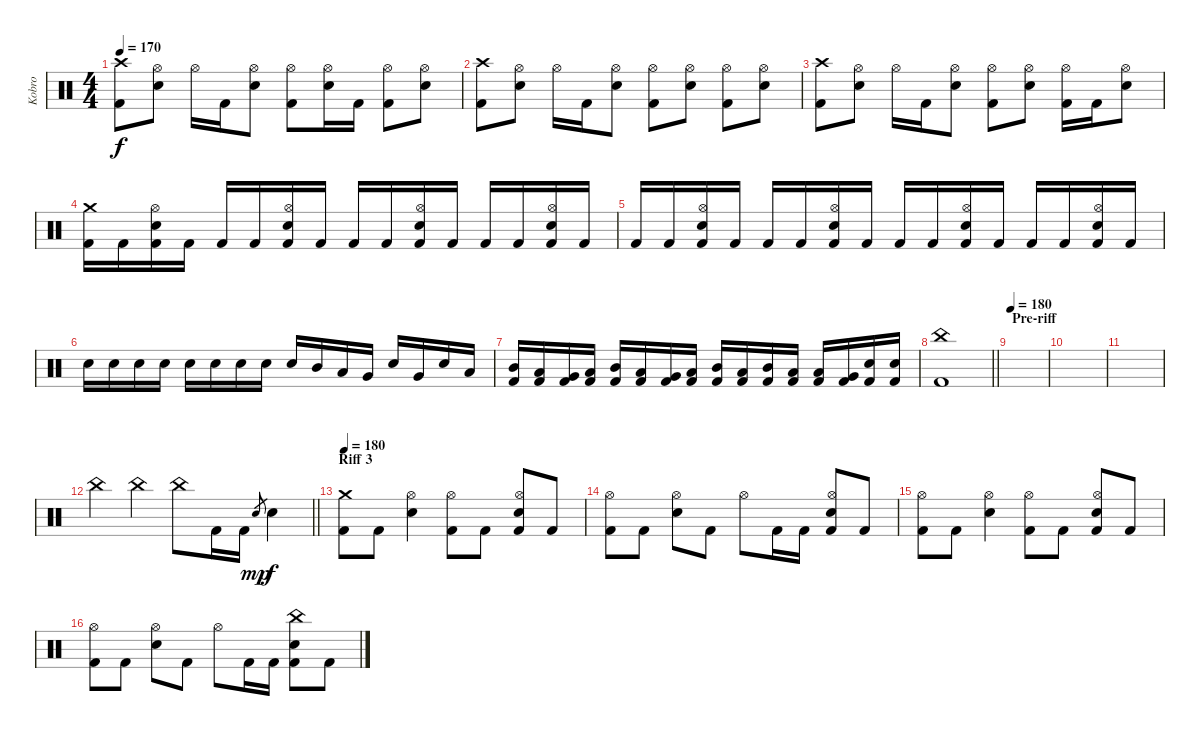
\track ("Kobro" "Kobro") {instrument percussion}
\staff {score}
\articulation defaults
\ts (4 4)
\tempo 170
\clef neutral
\ks c
("Crash high (hit)" "Kick (hit) 2").8{dy f} ("Hi-Hat (open)" "Electric Snare (hit)").8 "Hi-Hat (open)".16 "Kick (hit) 2".16 ("Hi-Hat (open)" "Electric Snare (hit)").8 ("Hi-Hat (open)" "Kick (hit) 2").8 ("Hi-Hat (open)" "Electric Snare (hit)").16 "Kick (hit) 2".16 ("Hi-Hat (open)" "Kick (hit) 2").8 ("Hi-Hat (open)" "Electric Snare (hit)").8 |
("Crash high (hit)" "Kick (hit) 2").8 ("Hi-Hat (open)" "Electric Snare (hit)").8 "Hi-Hat (open)".16 "Kick (hit) 2".16 ("Hi-Hat (open)" "Electric Snare (hit)").8 ("Hi-Hat (open)" "Kick (hit) 2").8 ("Hi-Hat (open)" "Electric Snare (hit)").8 ("Hi-Hat (open)" "Kick (hit) 2").8 ("Hi-Hat (open)" "Electric Snare (hit)").8 |
("Crash high (hit)" "Kick (hit) 2").8 ("Hi-Hat (open)" "Electric Snare (hit)").8 "Hi-Hat (open)".16 "Kick (hit) 2".16 ("Hi-Hat (open)" "Electric Snare (hit)").8 ("Hi-Hat (open)" "Kick (hit) 2").8 ("Hi-Hat (open)" "Electric Snare (hit)").8 ("Hi-Hat (open)" "Kick (hit) 2").16 "Kick (hit) 2".16 ("Hi-Hat (open)" "Electric Snare (hit)").8 |
("Crash medium (hit)" "Kick (hit) 2").16 "Kick (hit) 2".16 ("Hi-Hat (open)" "Electric Snare (hit)" "Kick (hit) 2").16 "Kick (hit) 2".16 "Kick (hit) 2".16 "Kick (hit) 2".16 ("Hi-Hat (open)" "Electric Snare (hit)" "Kick (hit) 2").16 "Kick (hit) 2".16 "Kick (hit) 2".16 "Kick (hit) 2".16 ("Hi-Hat (open)" "Electric Snare (hit)" "Kick (hit) 2").16 "Kick (hit) 2".16 "Kick (hit) 2".16 "Kick (hit) 2".16 ("Hi-Hat (open)" "Electric Snare (hit)" "Kick (hit) 2").16 "Kick (hit) 2".16 |
"Kick (hit) 2".16 "Kick (hit) 2".16 ("Hi-Hat (open)" "Electric Snare (hit)" "Kick (hit) 2").16 "Kick (hit) 2".16 "Kick (hit) 2".16 "Kick (hit) 2".16 ("Hi-Hat (open)" "Electric Snare (hit)" "Kick (hit) 2").16 "Kick (hit) 2".16 "Kick (hit) 2".16 "Kick (hit) 2".16 ("Hi-Hat (open)" "Electric Snare (hit)" "Kick (hit) 2").16 "Kick (hit) 2".16 "Kick (hit) 2".16 "Kick (hit) 2".16 ("Hi-Hat (open)" "Electric Snare (hit)" "Kick (hit) 2").16 "Kick (hit) 2".16 |
"Electric Snare (hit)".16 "Electric Snare (hit)".16 "Electric Snare (hit)".16 "Electric Snare (hit)".16 "Electric Snare (hit)".16 "Electric Snare (hit)".16 "Electric Snare (hit)".16 "Electric Snare (hit)".16 "Electric Snare (hit)".16 "Mid Tom (hit)".16 "Low Tom (hit)".16 "Very Low Tom (hit)".16 "Electric Snare (hit)".16 "Very Low Tom (hit)".16 "Electric Snare (hit)".16 "Low Tom (hit)".16 |
("Mid Tom (hit)" "Kick (hit) 2").16 ("Low Tom (hit)" "Kick (hit) 2").16 ("Very Low Tom (hit)" "Kick (hit) 2").16 ("Low Floor Tom (hit)" "Kick (hit) 2").16 ("Mid Tom (hit)" "Kick (hit) 2").16 ("Low Tom (hit)" "Kick (hit) 2").16 ("Very Low Tom (hit)" "Kick (hit) 2").16 ("Low Floor Tom (hit)" "Kick (hit) 2").16 ("Mid Tom (hit)" "Kick (hit) 2").16 ("Low Tom (hit)" "Kick (hit) 2").16 ("Mid Tom (hit)" "Kick (hit) 2").16 ("Low Tom (hit)" "Kick (hit) 2").16 ("Low Tom (hit)" "Kick (hit) 2").16 ("Very Low Tom (hit)" "Kick (hit) 2").16 ("Electric Snare (hit)" "Kick (hit) 2").16 ("Electric Snare (hit)" "Kick (hit) 2").16 |
\barLineRight lightlight
("China (hit)" "Kick (hit) 2").1 |
\section ("" "Pre-riff")
\tempo 180
|
|
|
\barLineRight lightlight "China (hit)".4 "China (hit)".4 "China (hit)".8 "Kick (hit) 2".16 "Kick (hit) 2".16 "Electric Snare (hit)".8{gr dy mp} "Electric Snare (hit)".4{dy f}
|
\section ("" "Riff 3")
\tempo 180
("Crash medium (hit)" "Kick (hit) 2").8 "Kick (hit) 2".8 ("Hi-Hat (open)" "Electric Snare (hit)").4 ("Hi-Hat (open)" "Kick (hit) 2").8 "Kick (hit) 2".8 ("Hi-Hat (open)" "Electric Snare (hit)" "Kick (hit) 2").8 "Kick (hit) 2".8 |
("Hi-Hat (open)" "Kick (hit) 2").8 "Kick (hit) 2".8 ("Hi-Hat (open)" "Electric Snare (hit)").8 "Kick (hit) 2".8 "Hi-Hat (open)".8 "Kick (hit) 2".16 "Kick (hit) 2".16 ("Hi-Hat (open)" "Electric Snare (hit)" "Kick (hit) 2").8 "Kick (hit) 2".8 |
("Hi-Hat (open)" "Kick (hit) 2").8 "Kick (hit) 2".8 ("Hi-Hat (open)" "Electric Snare (hit)").4 ("Hi-Hat (open)" "Kick (hit) 2").8 "Kick (hit) 2".8 ("Hi-Hat (open)" "Electric Snare (hit)" "Kick (hit) 2").8 "Kick (hit) 2".8 |
("Hi-Hat (open)" "Kick (hit) 2").8 "Kick (hit) 2".8 ("Hi-Hat (open)" "Electric Snare (hit)").8 "Kick (hit) 2".8 "Hi-Hat (open)".8 "Kick (hit) 2".16 "Kick (hit) 2".16 ("China (hit)" "Electric Snare (hit)" "Kick (hit) 2").8 "Kick (hit) 2".8
